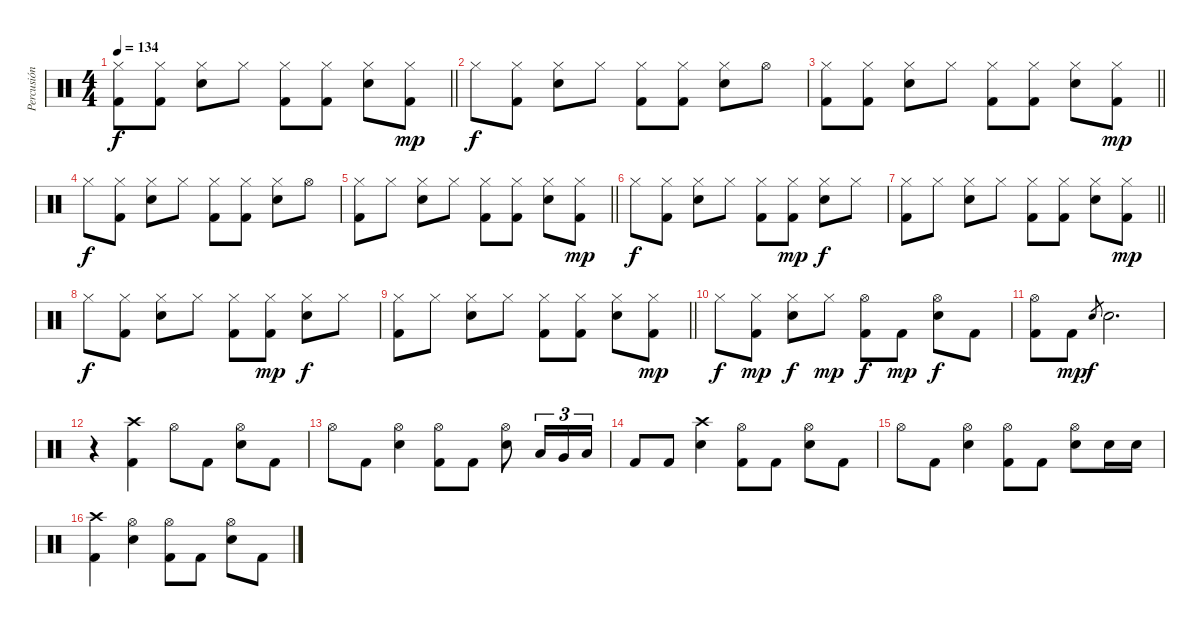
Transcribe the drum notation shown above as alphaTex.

\track ("Percusión" "Percusión") {instrument percussion}
\staff {score}
\articulation defaults
\ts (4 4)
\tempo 134
\clef neutral
\barLineRight lightlight
\ks c
("Hi-Hat (closed)" "Kick (hit) 2").8{dy f} ("Hi-Hat (closed)" "Kick (hit) 2").8 ("Hi-Hat (closed)" "Electric Snare (hit)").8 "Hi-Hat (closed)".8 ("Hi-Hat (closed)" "Kick (hit) 2").8 ("Hi-Hat (closed)" "Kick (hit) 2").8 ("Hi-Hat (closed)" "Electric Snare (hit)").8 ("Hi-Hat (closed)" "Kick (hit) 2").8{dy mp} |
"Hi-Hat (closed)".8{dy f} ("Hi-Hat (closed)" "Kick (hit) 2").8 ("Hi-Hat (closed)" "Electric Snare (hit)").8 "Hi-Hat (closed)".8 ("Hi-Hat (closed)" "Kick (hit) 2").8 ("Hi-Hat (closed)" "Kick (hit) 2").8 ("Hi-Hat (closed)" "Electric Snare (hit)").8 "Hi-Hat (open)".8 |
\barLineRight lightlight
("Hi-Hat (closed)" "Kick (hit) 2").8 ("Hi-Hat (closed)" "Kick (hit) 2").8 ("Hi-Hat (closed)" "Electric Snare (hit)").8 "Hi-Hat (closed)".8 ("Hi-Hat (closed)" "Kick (hit) 2").8 ("Hi-Hat (closed)" "Kick (hit) 2").8 ("Hi-Hat (closed)" "Electric Snare (hit)").8 ("Hi-Hat (closed)" "Kick (hit) 2").8{dy mp} |
"Hi-Hat (closed)".8{dy f} ("Hi-Hat (closed)" "Kick (hit) 2").8 ("Hi-Hat (closed)" "Electric Snare (hit)").8 "Hi-Hat (closed)".8 ("Hi-Hat (closed)" "Kick (hit) 2").8 ("Hi-Hat (closed)" "Kick (hit) 2").8 ("Hi-Hat (closed)" "Electric Snare (hit)").8 "Hi-Hat (open)".8 |
\barLineRight lightlight
("Hi-Hat (closed)" "Kick (hit) 2").8 "Hi-Hat (closed)".8 ("Hi-Hat (closed)" "Electric Snare (hit)").8 "Hi-Hat (closed)".8 ("Hi-Hat (closed)" "Kick (hit) 2").8 ("Hi-Hat (closed)" "Kick (hit) 2").8 ("Hi-Hat (closed)" "Electric Snare (hit)").8 ("Hi-Hat (closed)" "Kick (hit) 2").8{dy mp} |
"Hi-Hat (closed)".8{dy f} ("Hi-Hat (closed)" "Kick (hit) 2").8 ("Hi-Hat (closed)" "Electric Snare (hit)").8 "Hi-Hat (closed)".8 ("Hi-Hat (closed)" "Kick (hit) 2").8 ("Hi-Hat (closed)" "Kick (hit) 2").8{dy mp} ("Hi-Hat (closed)" "Electric Snare (hit)").8{dy f} "Hi-Hat (closed)".8 |
\barLineRight lightlight
("Hi-Hat (closed)" "Kick (hit) 2").8 "Hi-Hat (closed)".8 ("Hi-Hat (closed)" "Electric Snare (hit)").8 "Hi-Hat (closed)".8 ("Hi-Hat (closed)" "Kick (hit) 2").8 ("Hi-Hat (closed)" "Kick (hit) 2").8 ("Hi-Hat (closed)" "Electric Snare (hit)").8 ("Hi-Hat (closed)" "Kick (hit) 2").8{dy mp} |
"Hi-Hat (closed)".8{dy f} ("Hi-Hat (closed)" "Kick (hit) 2").8 ("Hi-Hat (closed)" "Electric Snare (hit)").8 "Hi-Hat (closed)".8 ("Hi-Hat (closed)" "Kick (hit) 2").8 ("Hi-Hat (closed)" "Kick (hit) 2").8{dy mp} ("Hi-Hat (closed)" "Electric Snare (hit)").8{dy f} "Hi-Hat (closed)".8 |
\barLineRight lightlight
("Hi-Hat (closed)" "Kick (hit) 2").8 "Hi-Hat (closed)".8 ("Hi-Hat (closed)" "Electric Snare (hit)").8 "Hi-Hat (closed)".8 ("Hi-Hat (closed)" "Kick (hit) 2").8 ("Hi-Hat (closed)" "Kick (hit) 2").8 ("Hi-Hat (closed)" "Electric Snare (hit)").8 ("Hi-Hat (closed)" "Kick (hit) 2").8{dy mp} |
"Hi-Hat (closed)".8{dy f} ("Hi-Hat (closed)" "Kick (hit) 2").8{dy mp} ("Hi-Hat (closed)" "Electric Snare (hit)").8{dy f} "Hi-Hat (closed)".8{dy mp} ("Hi-Hat (open)" "Kick (hit) 2").8{dy f} "Kick (hit) 2".8{dy mp} ("Hi-Hat (open)" "Electric Snare (hit)").8{dy f} "Kick (hit) 2".8 |
("Hi-Hat (open)" "Kick (hit) 2").8 "Kick (hit) 2".8{dy mp} "Electric Snare (hit)".8{gr dy f} "Electric Snare (hit)".2{d} |
r.4 ("Crash high (hit)" "Kick (hit) 2").4 "Hi-Hat (open)".8 "Kick (hit) 2".8 ("Hi-Hat (open)" "Electric Snare (hit)").8 "Kick (hit) 2".8 |
"Hi-Hat (open)".8 "Kick (hit) 2".8 ("Hi-Hat (open)" "Electric Snare (hit)").4 ("Hi-Hat (open)" "Kick (hit) 2").8 "Kick (hit) 2".8 ("Hi-Hat (open)" "Electric Snare (hit)").8 "Low Tom (hit)".16{tu (3 2)} "Very Low Tom (hit)".16{tu (3 2)} "Low Floor Tom (hit)".16{tu (3 2)} |
"Kick (hit) 2".8 "Kick (hit) 2".8 ("Crash high (hit)" "Electric Snare (hit)").4 ("Hi-Hat (open)" "Kick (hit) 2").8 "Kick (hit) 2".8 ("Hi-Hat (open)" "Electric Snare (hit)").8 "Kick (hit) 2".8 |
"Hi-Hat (open)".8 "Kick (hit) 2".8 ("Hi-Hat (open)" "Electric Snare (hit)").4 ("Hi-Hat (open)" "Kick (hit) 2").8 "Kick (hit) 2".8 ("Hi-Hat (open)" "Electric Snare (hit)").8 "Electric Snare (hit)".16 "Electric Snare (hit)".16 |
("Crash high (hit)" "Kick (hit) 2").4 ("Hi-Hat (open)" "Electric Snare (hit)").4 ("Hi-Hat (open)" "Kick (hit) 2").8 "Kick (hit) 2".8 ("Hi-Hat (open)" "Electric Snare (hit)").8 "Kick (hit) 2".8
